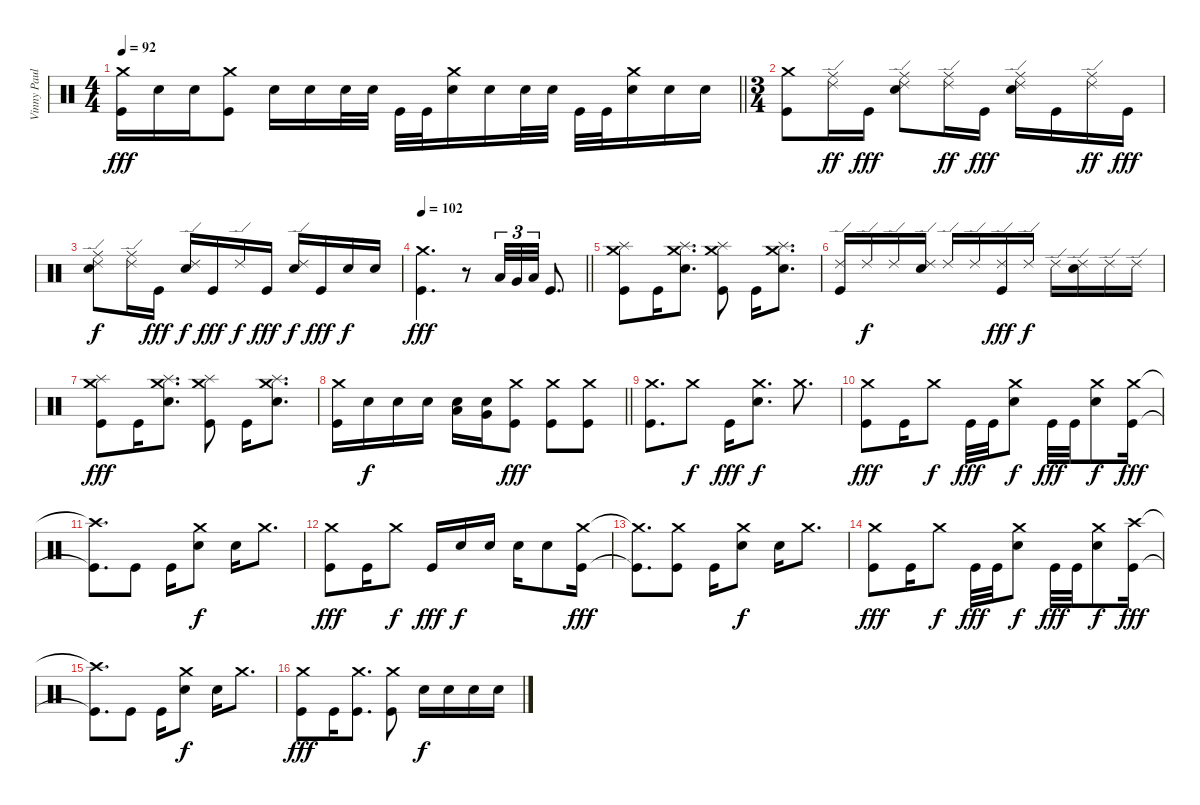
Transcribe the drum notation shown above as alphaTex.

\track ("Vinny Paul" "Vinny Paul") {instrument percussion}
\staff {score}
\articulation defaults
\ts (4 4)
\tempo 92
\clef neutral
\barLineRight lightlight
\ks c
("Crash medium (hit)" "Kick (hit)").16{dy fff} "Electric Snare (hit)".16 "Electric Snare (hit)".16 ("Crash medium (hit)" "Kick (hit)").8 "Electric Snare (hit)".16 "Electric Snare (hit)".16 "Electric Snare (hit)".32 "Electric Snare (hit)".32 "Kick (hit)".32 "Kick (hit)".32 ("Crash medium (hit)" "Electric Snare (hit)").16 "Electric Snare (hit)".16 "Electric Snare (hit)".32 "Electric Snare (hit)".32 "Kick (hit)".32 "Kick (hit)".32 ("Crash medium (hit)" "Electric Snare (hit)").16 "Electric Snare (hit)".16 "Electric Snare (hit)".16 |
\ts (3 4)
\section ("" "")
("Crash medium (hit)" "Kick (hit)").8 ("Ride (middle)" "Ride (edge) 2").16{dy ff} "Kick (hit)".16{dy fff} ("Ride (middle)" "Ride (edge) 2" "Electric Snare (hit)").8 ("Ride (middle)" "Ride (edge) 2").16{dy ff} "Kick (hit)".16{dy fff} ("Ride (middle)" "Ride (edge) 2" "Electric Snare (hit)").16 "Kick (hit)".16 ("Ride (middle)" "Ride (edge) 2").16{dy ff} "Kick (hit)".16{dy fff} |
("Ride (middle)" "Ride (edge) 2" "Electric Snare (hit)").8{dy f} ("Ride (middle)" "Ride (edge) 2").16 "Kick (hit)".16{dy fff} ("Ride (edge) 2" "Electric Snare (hit)").16{dy f} "Kick (hit)".16{dy fff} "Ride (edge) 2".16{dy f} "Kick (hit)".16{dy fff} ("Ride (edge) 2" "Electric Snare (hit)").16{dy f} "Kick (hit)".16{dy fff} "Electric Snare (hit)".16{dy f} "Electric Snare (hit)".16 |
\tempo 102
\barLineRight lightlight
("Crash medium (hit)" "Kick (hit)").4{d dy fff} r.8 "Low Tom (hit)".32{tu (3 2)} "Very Low Tom (hit)".32{tu (3 2)} "Low Floor Tom (hit)".32{tu (3 2)} "Kick (hit)".8{d} |
\section ("" "")
("Crash medium (hit)" "Splash (hit)" "Kick (hit)").8 "Kick (hit)".16 ("Crash medium (hit)" "Splash (hit)" "Electric Snare (hit)").8{d} ("Crash medium (hit)" "Splash (hit)" "Kick (hit)").8 "Kick (hit)".16 ("Crash medium (hit)" "Splash (hit)" "Electric Snare (hit)").8{d} |
("Ride (edge) 2" "Kick (hit)").16 "Ride (edge) 2".16{dy f} "Ride (edge) 2".16 ("Ride (edge) 2" "Electric Snare (hit)").16 "Ride (edge) 2".16 "Ride (edge) 2".16 ("Ride (edge) 2" "Kick (hit)").16{dy fff} "Ride (edge) 2".16{dy f} "Ride (edge) 2".16 ("Ride (edge) 2" "Electric Snare (hit)").16 "Ride (edge) 2".16 "Ride (edge) 2".16 |
("Crash medium (hit)" "Splash (hit)" "Kick (hit)").8{dy fff} "Kick (hit)".16 ("Crash medium (hit)" "Splash (hit)" "Electric Snare (hit)").8{d} ("Crash medium (hit)" "Splash (hit)" "Kick (hit)").8 "Kick (hit)".16 ("Crash medium (hit)" "Splash (hit)" "Electric Snare (hit)").8{d} |
\barLineRight lightlight
("Crash medium (hit)" "Kick (hit)").16 "Electric Snare (hit)".16{dy f} "Electric Snare (hit)".16 "Electric Snare (hit)".16 ("Electric Snare (hit)" "Low Tom (hit)").16 ("Electric Snare (hit)" "Very Low Tom (hit)").16 ("Crash medium (hit)" "Kick (hit)").8{dy fff} ("Crash medium (hit)" "Kick (hit)").8 ("Crash medium (hit)" "Kick (hit)").8 |
\section ("" "")
("Crash medium (hit)" "Kick (hit)").8{d} "Crash medium (hit)".8{dy f} "Kick (hit)".16{dy fff} ("Crash medium (hit)" "Electric Snare (hit)").8{d dy f} "Crash medium (hit)".8{d} |
("Crash medium (hit)" "Kick (hit)").8{dy fff} "Kick (hit)".16 "Crash medium (hit)".8{dy f} "Kick (hit)".32{dy fff} "Kick (hit)".32 ("Crash medium (hit)" "Electric Snare (hit)").8{dy f} "Kick (hit)".32{dy fff} "Kick (hit)".32 ("Crash medium (hit)" "Electric Snare (hit)").8{dy f} ("Crash medium (hit)" "Kick (hit)").16{dy fff} |
("Crash high (hit)"{t} "Kick (hit)"{t}).8{d} "Kick (hit)".8 "Kick (hit)".16 ("Crash medium (hit)" "Electric Snare (hit)").8{dy f} "Electric Snare (hit)".16 "Crash medium (hit)".8{d} |
("Crash medium (hit)" "Kick (hit)").8{dy fff} "Kick (hit)".16 "Crash medium (hit)".8{dy f} "Kick (hit)".16{dy fff} "Electric Snare (hit)".16{dy f} "Electric Snare (hit)".16 "Electric Snare (hit)".16 "Electric Snare (hit)".8 ("Crash medium (hit)" "Kick (hit)").16{dy fff} |
("Crash medium (hit)"{t} "Kick (hit)"{t}).8{d} ("Crash medium (hit)" "Kick (hit)").8 "Kick (hit)".16 ("Crash medium (hit)" "Electric Snare (hit)").8{dy f} "Electric Snare (hit)".16 "Crash medium (hit)".8{d} |
("Crash medium (hit)" "Kick (hit)").8{dy fff} "Kick (hit)".16 "Crash medium (hit)".8{dy f} "Kick (hit)".32{dy fff} "Kick (hit)".32 ("Crash medium (hit)" "Electric Snare (hit)").8{dy f} "Kick (hit)".32{dy fff} "Kick (hit)".32 ("Crash medium (hit)" "Electric Snare (hit)").8{dy f} ("Crash high (hit)" "Kick (hit)").16{dy fff} |
("Crash high (hit)"{t} "Kick (hit)"{t}).8{d} "Kick (hit)".8 "Kick (hit)".16 ("Crash medium (hit)" "Electric Snare (hit)").8{dy f} "Electric Snare (hit)".16 "Crash medium (hit)".8{d} |
("Crash medium (hit)" "Kick (hit)").8{dy fff} "Kick (hit)".16 ("Crash medium (hit)" "Kick (hit)").8{d} ("Crash medium (hit)" "Kick (hit)").8 "Electric Snare (hit)".16{dy f} "Electric Snare (hit)".16 "Electric Snare (hit)".16 "Electric Snare (hit)".16
